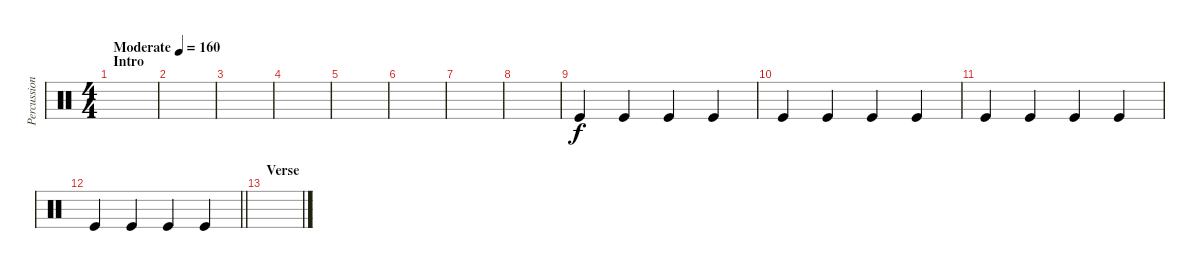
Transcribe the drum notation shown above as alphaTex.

\track ("Percussion" "Percussion") {instrument percussion}
\staff {score}
\articulation defaults
\ts (4 4)
\section ("" "Intro")
\tempo (160 "Moderate")
\clef neutral
\ks c
|
|
|
|
|
|
|
|
"Kick (hit)".4 "Kick (hit)".4 "Kick (hit)".4 "Kick (hit)".4 |
"Kick (hit)".4 "Kick (hit)".4 "Kick (hit)".4 "Kick (hit)".4 |
"Kick (hit)".4 "Kick (hit)".4 "Kick (hit)".4 "Kick (hit)".4 |
\barLineRight lightlight "Kick (hit)".4 "Kick (hit)".4 "Kick (hit)".4 "Kick (hit)".4
|
\section ("" "Verse")
